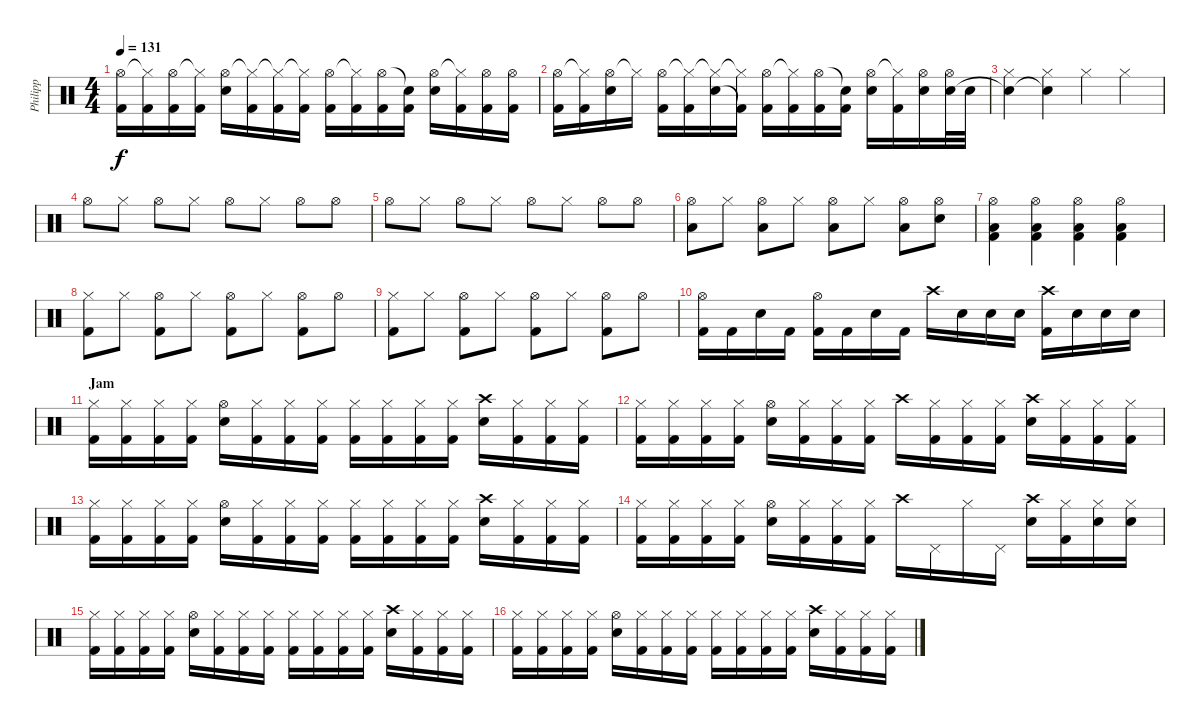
\track ("Philipp" "Philipp") {instrument percussion}
\staff {score}
\articulation defaults
\ts (4 4)
\tempo 131
\clef neutral
\ks c
("Hi-Hat (open)" "Kick (hit) 2").16{dy f} ("Hi-Hat (closed)"{t} "Kick (hit) 2").16 ("Hi-Hat (open)" "Kick (hit) 2").16 ("Hi-Hat (closed)"{t} "Kick (hit) 2").16 ("Hi-Hat (open)" "Electric Snare (hit)").16 ("Hi-Hat (closed)"{t} "Kick (hit) 2").16 ("Hi-Hat (closed)"{t} "Kick (hit) 2").16 ("Hi-Hat (closed)"{t} "Kick (hit) 2").16 ("Hi-Hat (open)" "Kick (hit) 2").16 ("Hi-Hat (closed)"{t} "Kick (hit) 2").16 ("Hi-Hat (open)" "Kick (hit) 2").16 ("Snare (hit)"{t} "Kick (hit) 2").16 ("Hi-Hat (open)" "Electric Snare (hit)").16 ("Hi-Hat (closed)"{t} "Kick (hit) 2").16 ("Hi-Hat (open)" "Kick (hit) 2").16 ("Hi-Hat (open)" "Kick (hit) 2").16 |
("Hi-Hat (open)" "Kick (hit) 2").16 ("Hi-Hat (closed)"{t} "Kick (hit) 2").16 ("Hi-Hat (open)" "Electric Snare (hit)").16 "Hi-Hat (closed)"{t}.16 ("Hi-Hat (open)" "Kick (hit) 2").16 ("Hi-Hat (closed)"{t} "Kick (hit) 2").16 ("Hi-Hat (closed)"{t} "Electric Snare (hit)").16 ("Hi-Hat (closed)"{t} "Kick (hit) 2"{t}).16 ("Hi-Hat (open)" "Kick (hit) 2").16 ("Hi-Hat (closed)"{t} "Kick (hit) 2").16 ("Hi-Hat (open)" "Kick (hit) 2").16 ("Snare (hit)"{t} "Kick (hit) 2").16 ("Hi-Hat (open)" "Electric Snare (hit)").16 ("Hi-Hat (closed)"{t} "Kick (hit) 2").16 ("Hi-Hat (open)" "Electric Snare (hit)").16 ("Hi-Hat (open)" "Electric Snare (hit)").32 "Electric Snare (hit)".32 |
("Hi-Hat (closed)" "Snare (hit)"{t}).4 ("Hi-Hat (closed)" "Snare (hit)"{t}).4 "Hi-Hat (closed)".4 "Hi-Hat (closed)".4 |
"Hi-Hat (open)".8 "Hi-Hat (closed)".8 "Hi-Hat (open)".8 "Hi-Hat (closed)".8 "Hi-Hat (open)".8 "Hi-Hat (closed)".8 "Hi-Hat (open)".8 "Hi-Hat (open)".8 |
"Hi-Hat (open)".8 "Hi-Hat (closed)".8 "Hi-Hat (open)".8 "Hi-Hat (closed)".8 "Hi-Hat (open)".8 "Hi-Hat (closed)".8 "Hi-Hat (open)".8 "Hi-Hat (open)".8 |
("Hi-Hat (open)" "Low Floor Tom (hit)").8 "Hi-Hat (closed)".8 ("Hi-Hat (open)" "Low Floor Tom (hit)").8 "Hi-Hat (closed)".8 ("Hi-Hat (open)" "Low Floor Tom (hit)").8 "Hi-Hat (closed)".8 ("Hi-Hat (open)" "Low Floor Tom (hit)").8 ("Hi-Hat (open)" "Electric Snare (hit)").8 |
("Hi-Hat (open)" "Kick (hit) 2" "Low Floor Tom (hit)").4 ("Hi-Hat (open)" "Kick (hit) 2" "Low Floor Tom (hit)").4 ("Hi-Hat (open)" "Kick (hit) 2" "Low Floor Tom (hit)").4 ("Hi-Hat (open)" "Kick (hit) 2" "Low Floor Tom (hit)").4 |
("Hi-Hat (closed)" "Kick (hit) 2").8 "Hi-Hat (closed)".8 ("Hi-Hat (open)" "Kick (hit) 2").8 "Hi-Hat (closed)".8 ("Hi-Hat (open)" "Kick (hit) 2").8 "Hi-Hat (closed)".8 ("Hi-Hat (open)" "Kick (hit) 2").8 "Hi-Hat (open)".8 |
("Hi-Hat (closed)" "Kick (hit) 2").8 "Hi-Hat (closed)".8 ("Hi-Hat (open)" "Kick (hit) 2").8 "Hi-Hat (closed)".8 ("Hi-Hat (open)" "Kick (hit) 2").8 "Hi-Hat (closed)".8 ("Hi-Hat (open)" "Kick (hit) 2").8 "Hi-Hat (open)".8 |
("Hi-Hat (open)" "Kick (hit) 2").16 "Kick (hit) 2".16 "Electric Snare (hit)".16 "Kick (hit) 2".16 ("Hi-Hat (open)" "Kick (hit) 2").16 "Kick (hit) 2".16 "Electric Snare (hit)".16 "Kick (hit) 2".16 "Crash high (hit)".16 "Electric Snare (hit)".16 "Electric Snare (hit)".16 "Electric Snare (hit)".16 ("Crash high (hit)" "Kick (hit) 2").16 "Electric Snare (hit)".16 "Electric Snare (hit)".16 "Electric Snare (hit)".16 |
\section ("" "Jam")
("Hi-Hat (closed)" "Kick (hit) 2").16 ("Hi-Hat (closed)" "Kick (hit) 2").16 ("Hi-Hat (closed)" "Kick (hit) 2").16 ("Hi-Hat (closed)" "Kick (hit) 2").16 ("Hi-Hat (open)" "Electric Snare (hit)").16 ("Hi-Hat (closed)" "Kick (hit) 2").16 ("Hi-Hat (closed)" "Kick (hit) 2").16 ("Hi-Hat (closed)" "Kick (hit) 2").16 ("Hi-Hat (closed)" "Kick (hit) 2").16 ("Hi-Hat (closed)" "Kick (hit) 2").16 ("Hi-Hat (closed)" "Kick (hit) 2").16 ("Hi-Hat (closed)" "Kick (hit) 2").16 ("Crash high (hit)" "Electric Snare (hit)").16 ("Hi-Hat (closed)" "Kick (hit) 2").16 ("Hi-Hat (closed)" "Kick (hit) 2").16 ("Hi-Hat (closed)" "Kick (hit) 2").16 |
("Hi-Hat (closed)" "Kick (hit) 2").16 ("Hi-Hat (closed)" "Kick (hit) 2").16 ("Hi-Hat (closed)" "Kick (hit) 2").16 ("Hi-Hat (closed)" "Kick (hit) 2").16 ("Hi-Hat (open)" "Electric Snare (hit)").16 ("Hi-Hat (closed)" "Kick (hit) 2").16 ("Hi-Hat (closed)" "Kick (hit) 2").16 ("Hi-Hat (closed)" "Kick (hit) 2").16 "Crash high (hit)".16 ("Hi-Hat (closed)" "Kick (hit) 2").16 ("Hi-Hat (closed)" "Kick (hit) 2").16 ("Hi-Hat (closed)" "Kick (hit) 2").16 ("Crash high (hit)" "Electric Snare (hit)").16 ("Hi-Hat (closed)" "Kick (hit) 2").16 ("Hi-Hat (closed)" "Kick (hit) 2").16 ("Hi-Hat (closed)" "Kick (hit) 2").16 |
("Hi-Hat (closed)" "Kick (hit) 2").16 ("Hi-Hat (closed)" "Kick (hit) 2").16 ("Hi-Hat (closed)" "Kick (hit) 2").16 ("Hi-Hat (closed)" "Kick (hit) 2").16 ("Hi-Hat (open)" "Electric Snare (hit)").16 ("Hi-Hat (closed)" "Kick (hit) 2").16 ("Hi-Hat (closed)" "Kick (hit) 2").16 ("Hi-Hat (closed)" "Kick (hit) 2").16 ("Hi-Hat (closed)" "Kick (hit) 2").16 ("Hi-Hat (closed)" "Kick (hit) 2").16 ("Hi-Hat (closed)" "Kick (hit) 2").16 ("Hi-Hat (closed)" "Kick (hit) 2").16 ("Crash high (hit)" "Electric Snare (hit)").16 ("Hi-Hat (closed)" "Kick (hit) 2").16 ("Hi-Hat (closed)" "Kick (hit) 2").16 ("Hi-Hat (closed)" "Kick (hit) 2").16 |
("Hi-Hat (closed)" "Kick (hit) 2").16 ("Hi-Hat (closed)" "Kick (hit) 2").16 ("Hi-Hat (closed)" "Kick (hit) 2").16 ("Hi-Hat (closed)" "Kick (hit) 2").16 ("Hi-Hat (open)" "Electric Snare (hit)").16 ("Hi-Hat (closed)" "Kick (hit) 2").16 ("Hi-Hat (closed)" "Kick (hit) 2").16 ("Hi-Hat (closed)" "Kick (hit) 2").16 "Crash high (hit)".16 "Pedal Hi-Hat (hit)".16 "Hi-Hat (closed)".16 "Pedal Hi-Hat (hit)".16 ("Crash high (hit)" "Electric Snare (hit)").16 ("Hi-Hat (closed)" "Kick (hit) 2").16 ("Hi-Hat (closed)" "Electric Snare (hit)").16 ("Hi-Hat (closed)" "Electric Snare (hit)").16 |
("Hi-Hat (closed)" "Kick (hit) 2").16 ("Hi-Hat (closed)" "Kick (hit) 2").16 ("Hi-Hat (closed)" "Kick (hit) 2").16 ("Hi-Hat (closed)" "Kick (hit) 2").16 ("Hi-Hat (open)" "Electric Snare (hit)").16 ("Hi-Hat (closed)" "Kick (hit) 2").16 ("Hi-Hat (closed)" "Kick (hit) 2").16 ("Hi-Hat (closed)" "Kick (hit) 2").16 ("Hi-Hat (closed)" "Kick (hit) 2").16 ("Hi-Hat (closed)" "Kick (hit) 2").16 ("Hi-Hat (closed)" "Kick (hit) 2").16 ("Hi-Hat (closed)" "Kick (hit) 2").16 ("Crash high (hit)" "Electric Snare (hit)").16 ("Hi-Hat (closed)" "Kick (hit) 2").16 ("Hi-Hat (closed)" "Kick (hit) 2").16 ("Hi-Hat (closed)" "Kick (hit) 2").16 |
("Hi-Hat (closed)" "Kick (hit) 2").16 ("Hi-Hat (closed)" "Kick (hit) 2").16 ("Hi-Hat (closed)" "Kick (hit) 2").16 ("Hi-Hat (closed)" "Kick (hit) 2").16 ("Hi-Hat (open)" "Electric Snare (hit)").16 ("Hi-Hat (closed)" "Kick (hit) 2").16 ("Hi-Hat (closed)" "Kick (hit) 2").16 ("Hi-Hat (closed)" "Kick (hit) 2").16 ("Hi-Hat (closed)" "Kick (hit) 2").16 ("Hi-Hat (closed)" "Kick (hit) 2").16 ("Hi-Hat (closed)" "Kick (hit) 2").16 ("Hi-Hat (closed)" "Kick (hit) 2").16 ("Crash high (hit)" "Electric Snare (hit)").16 ("Hi-Hat (closed)" "Kick (hit) 2").16 ("Hi-Hat (closed)" "Kick (hit) 2").16 ("Hi-Hat (closed)" "Kick (hit) 2").16
